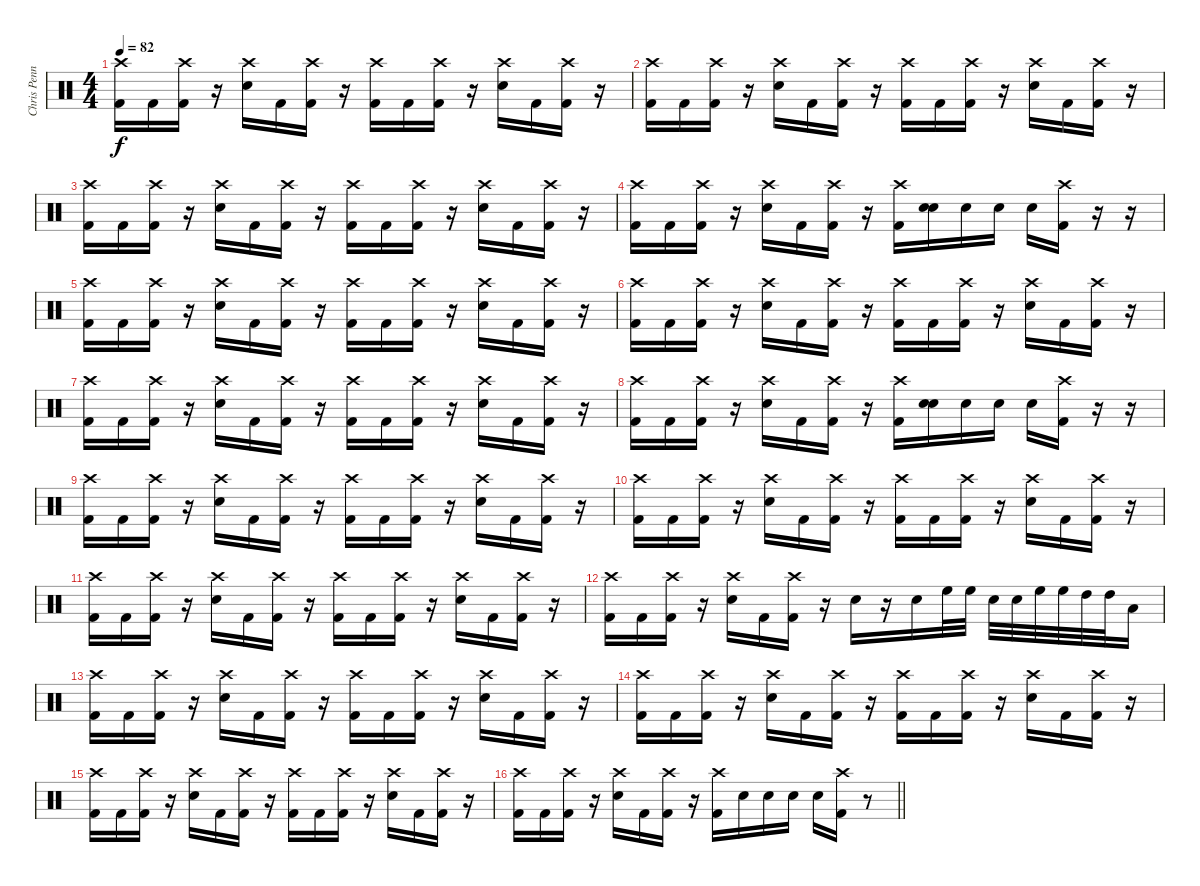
\track ("Chris Pennie" "Chris Penn") {instrument percussion}
\staff {score}
\articulation defaults
\ts (4 4)
\tempo 82
\clef neutral
\ks c
("Crash high (hit)" "Kick (hit) 2").16{dy f} "Kick (hit) 2".16 ("Crash high (hit)" "Kick (hit) 2").16 r.16 ("Crash high (hit)" "Electric Snare (hit)").16 "Kick (hit) 2".16 ("Crash high (hit)" "Kick (hit) 2").16 r.16 ("Crash high (hit)" "Kick (hit) 2").16 "Kick (hit) 2".16 ("Crash high (hit)" "Kick (hit) 2").16 r.16 ("Crash high (hit)" "Electric Snare (hit)").16 "Kick (hit) 2".16 ("Crash high (hit)" "Kick (hit) 2").16 r.16 |
("Crash high (hit)" "Kick (hit) 2").16 "Kick (hit) 2".16 ("Crash high (hit)" "Kick (hit) 2").16 r.16 ("Crash high (hit)" "Electric Snare (hit)").16 "Kick (hit) 2".16 ("Crash high (hit)" "Kick (hit) 2").16 r.16 ("Crash high (hit)" "Kick (hit) 2").16 "Kick (hit) 2".16 ("Crash high (hit)" "Kick (hit) 2").16 r.16 ("Crash high (hit)" "Electric Snare (hit)").16 "Kick (hit) 2".16 ("Crash high (hit)" "Kick (hit) 2").16 r.16 |
("Crash high (hit)" "Kick (hit) 2").16 "Kick (hit) 2".16 ("Crash high (hit)" "Kick (hit) 2").16 r.16 ("Crash high (hit)" "Electric Snare (hit)").16 "Kick (hit) 2".16 ("Crash high (hit)" "Kick (hit) 2").16 r.16 ("Crash high (hit)" "Kick (hit) 2").16 "Kick (hit) 2".16 ("Crash high (hit)" "Kick (hit) 2").16 r.16 ("Crash high (hit)" "Electric Snare (hit)").16 "Kick (hit) 2".16 ("Crash high (hit)" "Kick (hit) 2").16 r.16 |
("Crash high (hit)" "Kick (hit) 2").16 "Kick (hit) 2".16 ("Crash high (hit)" "Kick (hit) 2").16 r.16 ("Crash high (hit)" "Electric Snare (hit)").16 "Kick (hit) 2".16 ("Crash high (hit)" "Kick (hit) 2").16 r.16 ("Crash high (hit)" "Kick (hit) 2").16 ("Electric Snare (hit)" "Electric Snare (hit)").16 "Electric Snare (hit)".16 "Electric Snare (hit)".16 "Electric Snare (hit)".16 ("Crash high (hit)" "Kick (hit) 2").16 r.16 r.16 |
("Crash high (hit)" "Kick (hit) 2").16 "Kick (hit) 2".16 ("Crash high (hit)" "Kick (hit) 2").16 r.16 ("Crash high (hit)" "Electric Snare (hit)").16 "Kick (hit) 2".16 ("Crash high (hit)" "Kick (hit) 2").16 r.16 ("Crash high (hit)" "Kick (hit) 2").16 "Kick (hit) 2".16 ("Crash high (hit)" "Kick (hit) 2").16 r.16 ("Crash high (hit)" "Electric Snare (hit)").16 "Kick (hit) 2".16 ("Crash high (hit)" "Kick (hit) 2").16 r.16 |
("Crash high (hit)" "Kick (hit) 2").16 "Kick (hit) 2".16 ("Crash high (hit)" "Kick (hit) 2").16 r.16 ("Crash high (hit)" "Electric Snare (hit)").16 "Kick (hit) 2".16 ("Crash high (hit)" "Kick (hit) 2").16 r.16 ("Crash high (hit)" "Kick (hit) 2").16 "Kick (hit) 2".16 ("Crash high (hit)" "Kick (hit) 2").16 r.16 ("Crash high (hit)" "Electric Snare (hit)").16 "Kick (hit) 2".16 ("Crash high (hit)" "Kick (hit) 2").16 r.16 |
("Crash high (hit)" "Kick (hit) 2").16 "Kick (hit) 2".16 ("Crash high (hit)" "Kick (hit) 2").16 r.16 ("Crash high (hit)" "Electric Snare (hit)").16 "Kick (hit) 2".16 ("Crash high (hit)" "Kick (hit) 2").16 r.16 ("Crash high (hit)" "Kick (hit) 2").16 "Kick (hit) 2".16 ("Crash high (hit)" "Kick (hit) 2").16 r.16 ("Crash high (hit)" "Electric Snare (hit)").16 "Kick (hit) 2".16 ("Crash high (hit)" "Kick (hit) 2").16 r.16 |
("Crash high (hit)" "Kick (hit) 2").16 "Kick (hit) 2".16 ("Crash high (hit)" "Kick (hit) 2").16 r.16 ("Crash high (hit)" "Electric Snare (hit)").16 "Kick (hit) 2".16 ("Crash high (hit)" "Kick (hit) 2").16 r.16 ("Crash high (hit)" "Kick (hit) 2").16 ("Electric Snare (hit)" "Electric Snare (hit)").16 "Electric Snare (hit)".16 "Electric Snare (hit)".16 "Electric Snare (hit)".16 ("Crash high (hit)" "Kick (hit) 2").16 r.16 r.16 |
("Crash high (hit)" "Kick (hit) 2").16 "Kick (hit) 2".16 ("Crash high (hit)" "Kick (hit) 2").16 r.16 ("Crash high (hit)" "Electric Snare (hit)").16 "Kick (hit) 2".16 ("Crash high (hit)" "Kick (hit) 2").16 r.16 ("Crash high (hit)" "Kick (hit) 2").16 "Kick (hit) 2".16 ("Crash high (hit)" "Kick (hit) 2").16 r.16 ("Crash high (hit)" "Electric Snare (hit)").16 "Kick (hit) 2".16 ("Crash high (hit)" "Kick (hit) 2").16 r.16 |
("Crash high (hit)" "Kick (hit) 2").16 "Kick (hit) 2".16 ("Crash high (hit)" "Kick (hit) 2").16 r.16 ("Crash high (hit)" "Electric Snare (hit)").16 "Kick (hit) 2".16 ("Crash high (hit)" "Kick (hit) 2").16 r.16 ("Crash high (hit)" "Kick (hit) 2").16 "Kick (hit) 2".16 ("Crash high (hit)" "Kick (hit) 2").16 r.16 ("Crash high (hit)" "Electric Snare (hit)").16 "Kick (hit) 2".16 ("Crash high (hit)" "Kick (hit) 2").16 r.16 |
("Crash high (hit)" "Kick (hit) 2").16 "Kick (hit) 2".16 ("Crash high (hit)" "Kick (hit) 2").16 r.16 ("Crash high (hit)" "Electric Snare (hit)").16 "Kick (hit) 2".16 ("Crash high (hit)" "Kick (hit) 2").16 r.16 ("Crash high (hit)" "Kick (hit) 2").16 "Kick (hit) 2".16 ("Crash high (hit)" "Kick (hit) 2").16 r.16 ("Crash high (hit)" "Electric Snare (hit)").16 "Kick (hit) 2".16 ("Crash high (hit)" "Kick (hit) 2").16 r.16 |
("Crash high (hit)" "Kick (hit) 2").16 "Kick (hit) 2".16 ("Crash high (hit)" "Kick (hit) 2").16 r.16 ("Crash high (hit)" "Electric Snare (hit)").16 "Kick (hit) 2".16 ("Crash high (hit)" "Kick (hit) 2").16 r.16 "Electric Snare (hit)".16 r.16 "Electric Snare (hit)".16 "High Floor Tom (hit)".32 "High Floor Tom (hit)".32 "Electric Snare (hit)".32 "Electric Snare (hit)".32 "High Floor Tom (hit)".32 "High Floor Tom (hit)".32 "High Tom (hit)".32 "High Tom (hit)".32 "Low Floor Tom (hit)".16 |
("Crash high (hit)" "Kick (hit) 2").16 "Kick (hit) 2".16 ("Crash high (hit)" "Kick (hit) 2").16 r.16 ("Crash high (hit)" "Electric Snare (hit)").16 "Kick (hit) 2".16 ("Crash high (hit)" "Kick (hit) 2").16 r.16 ("Crash high (hit)" "Kick (hit) 2").16 "Kick (hit) 2".16 ("Crash high (hit)" "Kick (hit) 2").16 r.16 ("Crash high (hit)" "Electric Snare (hit)").16 "Kick (hit) 2".16 ("Crash high (hit)" "Kick (hit) 2").16 r.16 |
("Crash high (hit)" "Kick (hit) 2").16 "Kick (hit) 2".16 ("Crash high (hit)" "Kick (hit) 2").16 r.16 ("Crash high (hit)" "Electric Snare (hit)").16 "Kick (hit) 2".16 ("Crash high (hit)" "Kick (hit) 2").16 r.16 ("Crash high (hit)" "Kick (hit) 2").16 "Kick (hit) 2".16 ("Crash high (hit)" "Kick (hit) 2").16 r.16 ("Crash high (hit)" "Electric Snare (hit)").16 "Kick (hit) 2".16 ("Crash high (hit)" "Kick (hit) 2").16 r.16 |
("Crash high (hit)" "Kick (hit) 2").16 "Kick (hit) 2".16 ("Crash high (hit)" "Kick (hit) 2").16 r.16 ("Crash high (hit)" "Electric Snare (hit)").16 "Kick (hit) 2".16 ("Crash high (hit)" "Kick (hit) 2").16 r.16 ("Crash high (hit)" "Kick (hit) 2").16 "Kick (hit) 2".16 ("Crash high (hit)" "Kick (hit) 2").16 r.16 ("Crash high (hit)" "Electric Snare (hit)").16 "Kick (hit) 2".16 ("Crash high (hit)" "Kick (hit) 2").16 r.16 |
\barLineRight lightlight
("Crash high (hit)" "Kick (hit) 2").16 "Kick (hit) 2".16 ("Crash high (hit)" "Kick (hit) 2").16 r.16 ("Crash high (hit)" "Electric Snare (hit)").16 "Kick (hit) 2".16 ("Crash high (hit)" "Kick (hit) 2").16 r.16 ("Crash high (hit)" "Kick (hit) 2").16 "Electric Snare (hit)".16 "Electric Snare (hit)".16 "Electric Snare (hit)".16 "Electric Snare (hit)".16 ("Crash high (hit)" "Kick (hit) 2").16 r.8
